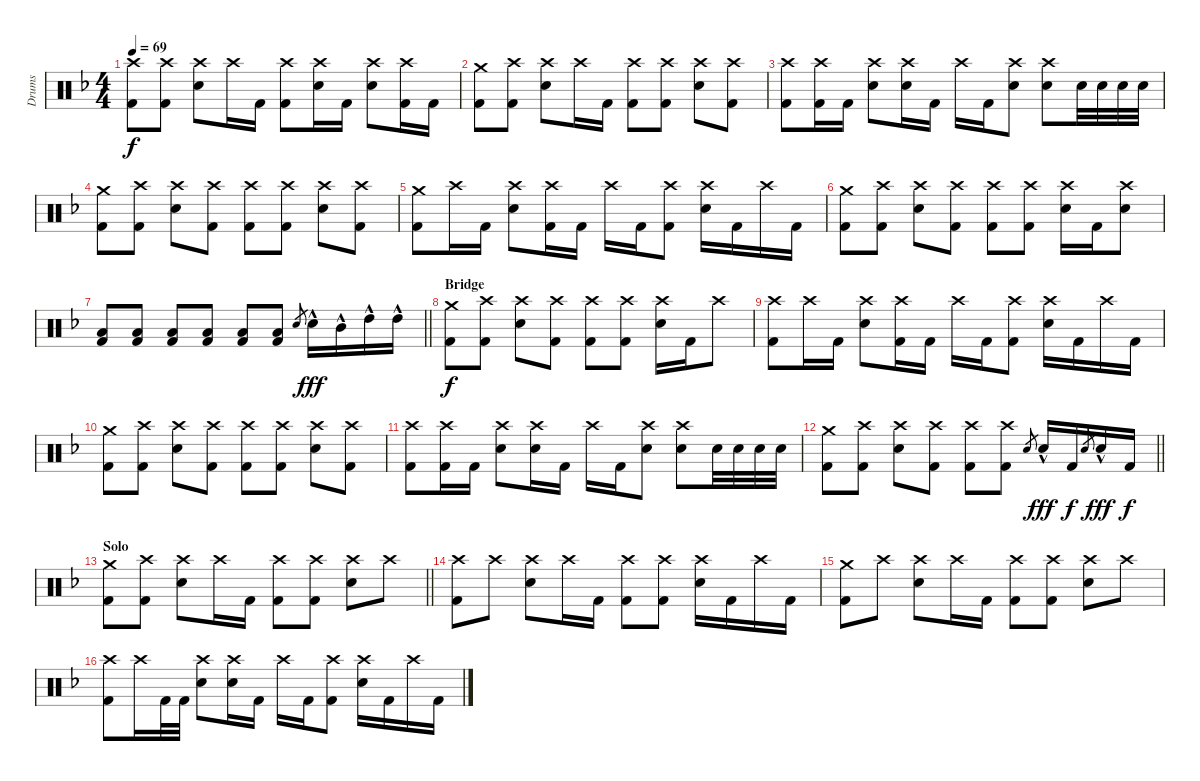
\track ("Drums" "Drums") {instrument percussion}
\staff {score}
\articulation defaults
\ts (4 4)
\tempo 69
\clef neutral
\ks dminor
("Crash high (hit)" "Kick (hit) 2").8{dy f} ("Crash high (hit)" "Kick (hit) 2").8 ("Crash high (hit)" "Snare (hit) 2").8 "Crash high (hit)".16 "Kick (hit) 2".16 ("Crash high (hit)" "Kick (hit) 2").8 ("Crash high (hit)" "Snare (hit) 2").16 "Kick (hit) 2".16 ("Crash high (hit)" "Snare (hit) 2").8 ("Crash high (hit)" "Kick (hit) 2").16 "Kick (hit) 2".16 |
("Crash medium (hit)" "Kick (hit) 2").8 ("Crash high (hit)" "Kick (hit) 2").8 ("Crash high (hit)" "Snare (hit) 2").8 "Crash high (hit)".16 "Kick (hit) 2".16 ("Crash high (hit)" "Kick (hit) 2").8 ("Crash high (hit)" "Kick (hit) 2").8 ("Crash high (hit)" "Snare (hit) 2").8 ("Crash high (hit)" "Kick (hit) 2").8 |
("Crash high (hit)" "Kick (hit) 2").8 ("Crash high (hit)" "Kick (hit) 2").16 "Kick (hit) 2".16 ("Crash high (hit)" "Snare (hit) 2").8 ("Crash high (hit)" "Snare (hit) 2").16 "Kick (hit) 2".16 "Crash high (hit)".16 "Kick (hit) 2".16 ("Crash high (hit)" "Snare (hit) 2").8 ("Crash high (hit)" "Snare (hit) 2").8 "Snare (hit) 2".32 "Snare (hit) 2".32 "Snare (hit) 2".32 "Snare (hit) 2".32 |
("Crash medium (hit)" "Kick (hit) 2").8 ("Crash high (hit)" "Kick (hit) 2").8 ("Crash high (hit)" "Snare (hit) 2").8 ("Crash high (hit)" "Kick (hit) 2").8 ("Crash high (hit)" "Kick (hit) 2").8 ("Crash high (hit)" "Kick (hit) 2").8 ("Crash high (hit)" "Snare (hit) 2").8 ("Crash high (hit)" "Kick (hit) 2").8 |
("Crash medium (hit)" "Kick (hit) 2").8 "Crash high (hit)".16 "Kick (hit) 2".16 ("Crash high (hit)" "Snare (hit) 2").8 ("Crash high (hit)" "Kick (hit) 2").16 "Kick (hit) 2".16 "Crash high (hit)".16 "Kick (hit) 2".16 ("Crash high (hit)" "Kick (hit) 2").8 ("Crash high (hit)" "Snare (hit) 2").16 "Kick (hit) 2".16 "Crash high (hit)".16 "Kick (hit) 2".16 |
("Crash medium (hit)" "Kick (hit) 2").8 ("Crash high (hit)" "Kick (hit) 2").8 ("Crash high (hit)" "Snare (hit) 2").8 ("Crash high (hit)" "Kick (hit) 2").8 ("Crash high (hit)" "Kick (hit) 2").8 ("Crash high (hit)" "Kick (hit) 2").8 ("Crash high (hit)" "Snare (hit) 2").16 "Kick (hit) 2".16 ("Crash high (hit)" "Snare (hit) 2").8 |
\barLineRight lightlight
("Low Floor Tom (hit)" "Kick (hit) 2").8 ("Low Floor Tom (hit)" "Kick (hit) 2").8 ("Low Floor Tom (hit)" "Kick (hit) 2").8 ("Low Floor Tom (hit)" "Kick (hit) 2").8 ("Low Floor Tom (hit)" "Kick (hit) 2").8 ("Low Floor Tom (hit)" "Kick (hit) 2").8 "Snare (hit) 2".8{gr} "Snare (hit) 2"{hac}.16{dy fff} "Mid Tom (hit)"{hac}.16 "High Tom (hit)"{hac}.16 "High Tom (hit)"{hac}.16 |
\section ("" "Bridge")
("Crash medium (hit)" "Kick (hit) 2").8{dy f} ("Crash high (hit)" "Kick (hit) 2").8 ("Crash high (hit)" "Snare (hit) 2").8 ("Crash high (hit)" "Kick (hit) 2").8 ("Crash high (hit)" "Kick (hit) 2").8 ("Crash high (hit)" "Kick (hit) 2").8 ("Crash high (hit)" "Snare (hit) 2").16 "Kick (hit) 2".16 "Crash high (hit)".8 |
("Crash high (hit)" "Kick (hit) 2").8 "Crash high (hit)".16 "Kick (hit) 2".16 ("Crash high (hit)" "Snare (hit) 2").8 ("Crash high (hit)" "Kick (hit) 2").16 "Kick (hit) 2".16 "Crash high (hit)".16 "Kick (hit) 2".16 ("Crash high (hit)" "Kick (hit) 2").8 ("Crash high (hit)" "Snare (hit) 2").16 "Kick (hit) 2".16 "Crash high (hit)".16 "Kick (hit) 2".16 |
("Crash medium (hit)" "Kick (hit) 2").8 ("Crash high (hit)" "Kick (hit) 2").8 ("Crash high (hit)" "Snare (hit) 2").8 ("Crash high (hit)" "Kick (hit) 2").8 ("Crash high (hit)" "Kick (hit) 2").8 ("Crash high (hit)" "Kick (hit) 2").8 ("Crash high (hit)" "Snare (hit) 2").8 ("Crash high (hit)" "Kick (hit) 2").8 |
("Crash high (hit)" "Kick (hit) 2").8 ("Crash high (hit)" "Kick (hit) 2").16 "Kick (hit) 2".16 ("Crash high (hit)" "Snare (hit) 2").8 ("Crash high (hit)" "Snare (hit) 2").16 "Kick (hit) 2".16 "Crash high (hit)".16 "Kick (hit) 2".16 ("Crash high (hit)" "Snare (hit) 2").8 ("Crash high (hit)" "Snare (hit) 2").8 "Snare (hit) 2".32 "Snare (hit) 2".32 "Snare (hit) 2".32 "Snare (hit) 2".32 |
\barLineRight lightlight
("Crash medium (hit)" "Kick (hit) 2").8 ("Crash high (hit)" "Kick (hit) 2").8 ("Crash high (hit)" "Snare (hit) 2").8 ("Crash high (hit)" "Kick (hit) 2").8 ("Crash high (hit)" "Kick (hit) 2").8 ("Crash high (hit)" "Kick (hit) 2").8 "Snare (hit) 2".8{gr} "Snare (hit) 2"{hac}.16{dy fff} "Kick (hit) 2".16{dy f} "Snare (hit) 2".8{gr} "Snare (hit) 2"{hac}.16{dy fff} "Kick (hit) 2".16{dy f} |
\section ("" "Solo")
\barLineRight lightlight
("Crash medium (hit)" "Kick (hit) 2").8 ("Crash high (hit)" "Kick (hit) 2").8 ("Crash high (hit)" "Snare (hit) 2").8 "Crash high (hit)".16 "Kick (hit) 2".16 ("Crash high (hit)" "Kick (hit) 2").8 ("Crash high (hit)" "Kick (hit) 2").8 ("Crash high (hit)" "Snare (hit) 2").8 "Crash high (hit)".8 |
\section ("" "")
("Crash high (hit)" "Kick (hit) 2").8 "Crash high (hit)".8 ("Crash high (hit)" "Snare (hit) 2").8 "Crash high (hit)".16 "Kick (hit) 2".16 ("Crash high (hit)" "Kick (hit) 2").8 ("Crash high (hit)" "Kick (hit) 2").8 ("Crash high (hit)" "Snare (hit) 2").16 "Kick (hit) 2".16 "Crash high (hit)".16 "Kick (hit) 2".16 |
("Crash medium (hit)" "Kick (hit) 2").8 "Crash high (hit)".8 ("Crash high (hit)" "Snare (hit) 2").8 "Crash high (hit)".16 "Kick (hit) 2".16 ("Crash high (hit)" "Kick (hit) 2").8 ("Crash high (hit)" "Kick (hit) 2").8 ("Crash high (hit)" "Snare (hit) 2").8 "Crash high (hit)".8 |
("Crash high (hit)" "Kick (hit) 2").8 "Crash high (hit)".16 "Kick (hit) 2".32 "Kick (hit) 2".32 ("Crash high (hit)" "Snare (hit) 2").8 ("Crash high (hit)" "Snare (hit) 2").16 "Kick (hit) 2".16 "Crash high (hit)".16 "Kick (hit) 2".16 ("Crash high (hit)" "Kick (hit) 2").8 ("Crash high (hit)" "Snare (hit) 2").16 "Kick (hit) 2".16 "Crash high (hit)".16 "Kick (hit) 2".16
